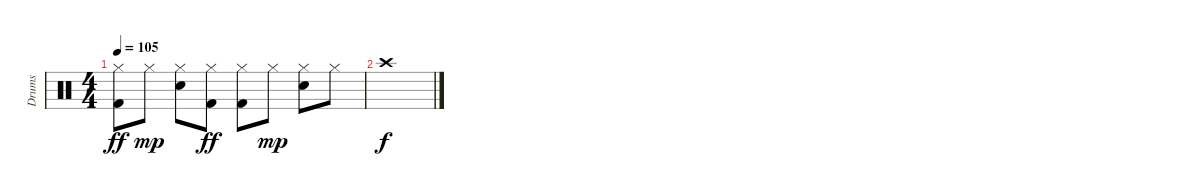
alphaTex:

\track ("Drums" "Drums") {instrument percussion}
\staff {score}
\articulation defaults
\ts (4 4)
\tempo 105
\clef neutral
\ks c
("Hi-Hat (closed)" "Kick (hit) 2").8{dy ff} "Hi-Hat (closed)".8{dy mp} ("Hi-Hat (closed)" "Electric Snare (hit)").8 ("Hi-Hat (closed)" "Kick (hit) 2").8{dy ff} ("Hi-Hat (closed)" "Kick (hit) 2").8 "Hi-Hat (closed)".8{dy mp} ("Hi-Hat (closed)" "Electric Snare (hit)").8 "Hi-Hat (closed)".8 |
"Crash high (hit)".1{dy f}
